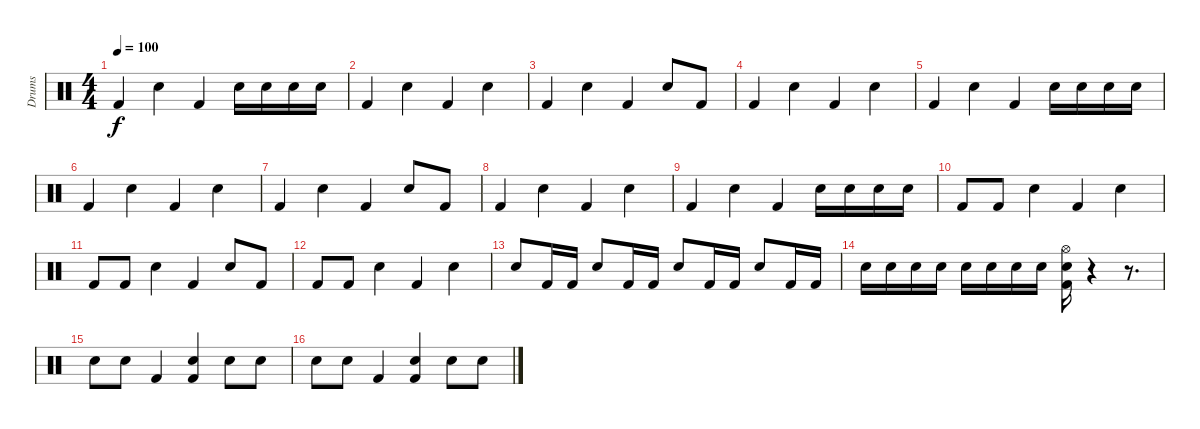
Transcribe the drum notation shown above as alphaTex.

\track ("Drums" "Drums") {instrument percussion}
\staff {score}
\articulation defaults
\ts (4 4)
\tempo 100
\clef neutral
\ks c "Kick (hit) 2".4{dy f} "Snare (hit) 2".4 "Kick (hit) 2".4 "Snare (hit) 2".16 "Snare (hit) 2".16 "Snare (hit) 2".16 "Snare (hit) 2".16
|
"Kick (hit) 2".4 "Snare (hit) 2".4 "Kick (hit) 2".4 "Snare (hit) 2".4 |
"Kick (hit) 2".4 "Snare (hit) 2".4 "Kick (hit) 2".4 "Snare (hit) 2".8 "Kick (hit) 2".8 |
"Kick (hit) 2".4 "Snare (hit) 2".4 "Kick (hit) 2".4 "Snare (hit) 2".4 |
"Kick (hit) 2".4 "Snare (hit) 2".4 "Kick (hit) 2".4 "Snare (hit) 2".16 "Snare (hit) 2".16 "Snare (hit) 2".16 "Snare (hit) 2".16 |
"Kick (hit) 2".4 "Snare (hit) 2".4 "Kick (hit) 2".4 "Snare (hit) 2".4 |
"Kick (hit) 2".4 "Snare (hit) 2".4 "Kick (hit) 2".4 "Snare (hit) 2".8 "Kick (hit) 2".8 |
"Kick (hit) 2".4 "Snare (hit) 2".4 "Kick (hit) 2".4 "Snare (hit) 2".4 |
"Kick (hit) 2".4 "Snare (hit) 2".4 "Kick (hit) 2".4 "Snare (hit) 2".16 "Snare (hit) 2".16 "Snare (hit) 2".16 "Snare (hit) 2".16 |
"Kick (hit) 2".8 "Kick (hit) 2".8 "Snare (hit) 2".4 "Kick (hit) 2".4 "Snare (hit) 2".4 |
"Kick (hit) 2".8 "Kick (hit) 2".8 "Snare (hit) 2".4 "Kick (hit) 2".4 "Snare (hit) 2".8 "Kick (hit) 2".8 |
"Kick (hit) 2".8 "Kick (hit) 2".8 "Snare (hit) 2".4 "Kick (hit) 2".4 "Snare (hit) 2".4 |
"Snare (hit) 2".8 "Kick (hit) 2".16 "Kick (hit) 2".16 "Snare (hit) 2".8 "Kick (hit) 2".16 "Kick (hit) 2".16 "Snare (hit) 2".8 "Kick (hit) 2".16 "Kick (hit) 2".16 "Snare (hit) 2".8 "Kick (hit) 2".16 "Kick (hit) 2".16 |
"Snare (hit) 2".16 "Snare (hit) 2".16 "Snare (hit) 2".16 "Snare (hit) 2".16 "Snare (hit) 2".16 "Snare (hit) 2".16 "Snare (hit) 2".16 "Snare (hit) 2".16 ("Kick (hit) 2" "Snare (hit) 2" "Hi-Hat (open)").16 r.4 r.8{d} |
"Snare (hit) 2".8 "Snare (hit) 2".8 "Kick (hit) 2".4 ("Kick (hit) 2" "Snare (hit) 2").4 "Snare (hit) 2".8 "Snare (hit) 2".8 |
"Snare (hit) 2".8 "Snare (hit) 2".8 "Kick (hit) 2".4 ("Kick (hit) 2" "Snare (hit) 2").4 "Snare (hit) 2".8 "Snare (hit) 2".8
